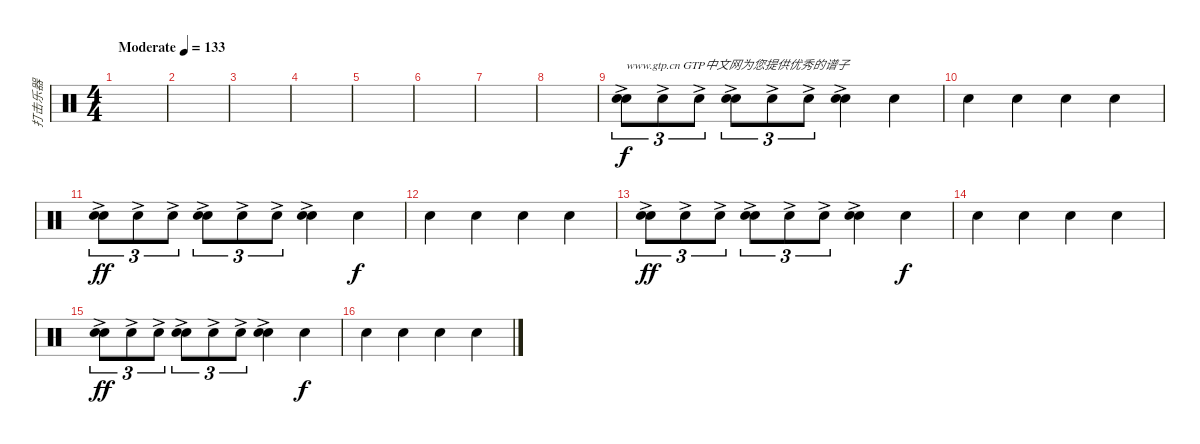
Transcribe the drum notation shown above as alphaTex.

\track ("打击乐器" "打击乐器") {instrument percussion}
\staff {score}
\articulation defaults
\ts (4 4)
\tempo (133 "Moderate")
\clef neutral
\ks c
|
|
|
|
|
|
|
|
("Hand Clap (hit)" "Electric Snare (hit)"{ac}).8{tu (3 2) txt "www.gtp.cn GTP中文网为您提供优秀的谱子"} "Electric Snare (hit)"{ac}.8{tu (3 2)} "Electric Snare (hit)"{ac}.8{tu (3 2)} ("Hand Clap (hit)" "Electric Snare (hit)"{ac}).8{tu (3 2)} "Electric Snare (hit)"{ac}.8{tu (3 2)} "Electric Snare (hit)"{ac}.8{tu (3 2)} ("Hand Clap (hit)" "Electric Snare (hit)"{ac}).4 "Hand Clap (hit)".4{dy f} |
"Hand Clap (hit)".4 "Hand Clap (hit)".4 "Hand Clap (hit)".4 "Hand Clap (hit)".4 |
("Hand Clap (hit)" "Electric Snare (hit)"{ac}).8{tu (3 2) dy ff} "Electric Snare (hit)"{ac}.8{tu (3 2)} "Electric Snare (hit)"{ac}.8{tu (3 2)} ("Hand Clap (hit)" "Electric Snare (hit)"{ac}).8{tu (3 2)} "Electric Snare (hit)"{ac}.8{tu (3 2)} "Electric Snare (hit)"{ac}.8{tu (3 2)} ("Hand Clap (hit)" "Electric Snare (hit)"{ac}).4 "Hand Clap (hit)".4{dy f} |
"Hand Clap (hit)".4 "Hand Clap (hit)".4 "Hand Clap (hit)".4 "Hand Clap (hit)".4 |
("Hand Clap (hit)" "Electric Snare (hit)"{ac}).8{tu (3 2) dy ff} "Electric Snare (hit)"{ac}.8{tu (3 2)} "Electric Snare (hit)"{ac}.8{tu (3 2)} ("Hand Clap (hit)" "Electric Snare (hit)"{ac}).8{tu (3 2)} "Electric Snare (hit)"{ac}.8{tu (3 2)} "Electric Snare (hit)"{ac}.8{tu (3 2)} ("Hand Clap (hit)" "Electric Snare (hit)"{ac}).4 "Hand Clap (hit)".4{dy f} |
"Hand Clap (hit)".4 "Hand Clap (hit)".4 "Hand Clap (hit)".4 "Hand Clap (hit)".4 |
("Hand Clap (hit)" "Electric Snare (hit)"{ac}).8{tu (3 2) dy ff} "Electric Snare (hit)"{ac}.8{tu (3 2)} "Electric Snare (hit)"{ac}.8{tu (3 2)} ("Hand Clap (hit)" "Electric Snare (hit)"{ac}).8{tu (3 2)} "Electric Snare (hit)"{ac}.8{tu (3 2)} "Electric Snare (hit)"{ac}.8{tu (3 2)} ("Hand Clap (hit)" "Electric Snare (hit)"{ac}).4 "Hand Clap (hit)".4{dy f} |
"Hand Clap (hit)".4 "Hand Clap (hit)".4 "Hand Clap (hit)".4 "Hand Clap (hit)".4
